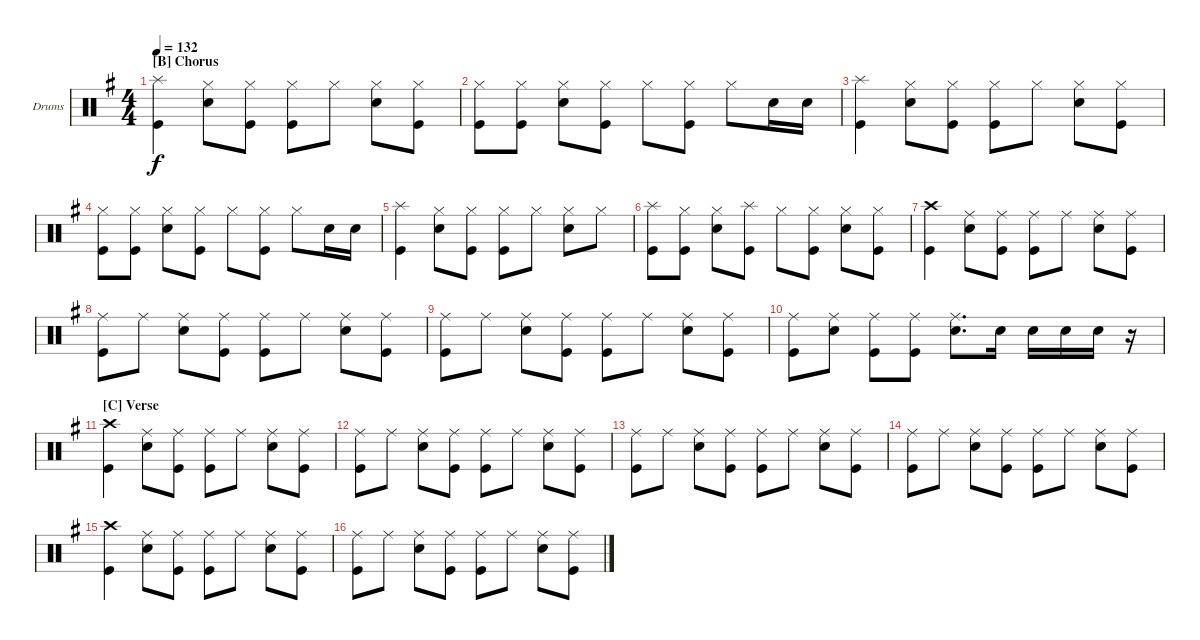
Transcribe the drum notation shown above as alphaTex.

\defaultSystemsLayout 4
\bracketExtendMode groupsimilarinstruments
\firstSystemTrackNameOrientation horizontal
\otherSystemsTrackNameOrientation horizontal
\track ("Drumkit" "Drums") {instrument percussion}
\staff {score}
\articulation defaults
\ts (4 4)
\section ("B" "Chorus")
\tempo 132
\clef neutral
\scale
0.957125
\ks g
("Splash (hit)" "Kick (hit)").4{dy f} ("Hi-Hat (closed)" "Snare (hit) 2").8 ("Hi-Hat (closed)" "Kick (hit)").8 ("Hi-Hat (closed)" "Kick (hit)").8 "Hi-Hat (closed)".8 ("Hi-Hat (closed)" "Snare (hit) 2").8 ("Hi-Hat (closed)" "Kick (hit)").8 |
\scale
0.957125 ("Hi-Hat (closed)" "Kick (hit)").8 ("Hi-Hat (closed)" "Kick (hit)").8 ("Hi-Hat (closed)" "Snare (hit) 2").8 ("Hi-Hat (closed)" "Kick (hit)").8 "Hi-Hat (closed)".8 ("Hi-Hat (closed)" "Kick (hit)").8 "Hi-Hat (closed)".8 "Snare (hit) 2".16 "Snare (hit) 2".16 |
\scale
1.08575 ("Splash (hit)" "Kick (hit)").4 ("Hi-Hat (closed)" "Snare (hit) 2").8 ("Hi-Hat (closed)" "Kick (hit)").8 ("Hi-Hat (closed)" "Kick (hit)").8 "Hi-Hat (closed)".8 ("Hi-Hat (closed)" "Snare (hit) 2").8 ("Hi-Hat (closed)" "Kick (hit)").8 |
\scale
0.957125 ("Hi-Hat (closed)" "Kick (hit)").8 ("Hi-Hat (closed)" "Kick (hit)").8 ("Hi-Hat (closed)" "Snare (hit) 2").8 ("Hi-Hat (closed)" "Kick (hit)").8 "Hi-Hat (closed)".8 ("Hi-Hat (closed)" "Kick (hit)").8 "Hi-Hat (closed)".8 "Snare (hit) 2".16 "Snare (hit) 2".16 |
\scale
0.957125 ("Splash (hit)" "Kick (hit)").4 ("Hi-Hat (closed)" "Snare (hit) 2").8 ("Hi-Hat (closed)" "Kick (hit)").8 ("Hi-Hat (closed)" "Kick (hit)").8 "Hi-Hat (closed)".8 ("Hi-Hat (closed)" "Snare (hit) 2").8 "Hi-Hat (closed)".8 |
\scale
1.08575 ("Splash (hit)" "Kick (hit)").8 ("Hi-Hat (closed)" "Kick (hit)").8 ("Hi-Hat (closed)" "Snare (hit) 2").8 ("Splash (hit)" "Kick (hit)").8 "Hi-Hat (closed)".8 ("Hi-Hat (closed)" "Kick (hit)").8 ("Hi-Hat (closed)" "Snare (hit) 2").8 ("Hi-Hat (closed)" "Kick (hit)").8 |
\scale
0.957125 ("Crash high (hit)" "Kick (hit)").4 ("Ride (middle)" "Snare (hit) 2").8 ("Ride (middle)" "Kick (hit)").8 ("Ride (middle)" "Kick (hit)").8 "Ride (middle)".8 ("Ride (middle)" "Snare (hit) 2").8 ("Ride (middle)" "Kick (hit)").8 |
\scale
0.957125 ("Ride (middle)" "Kick (hit)").8 "Ride (middle)".8 ("Ride (middle)" "Snare (hit) 2").8 ("Ride (middle)" "Kick (hit)").8 ("Ride (middle)" "Kick (hit)").8 "Ride (middle)".8 ("Ride (middle)" "Snare (hit) 2").8 ("Ride (middle)" "Kick (hit)").8 |
\scale
1.08575 ("Ride (middle)" "Kick (hit)").8 "Ride (middle)".8 ("Ride (middle)" "Snare (hit) 2").8 ("Ride (middle)" "Kick (hit)").8 ("Ride (middle)" "Kick (hit)").8 "Ride (middle)".8 ("Ride (middle)" "Snare (hit) 2").8 ("Ride (middle)" "Kick (hit)").8 |
\scale
0.957125 ("Ride (middle)" "Kick (hit)").8 ("Ride (middle)" "Snare (hit) 2").8 ("Ride (middle)" "Kick (hit)").8 ("Ride (middle)" "Kick (hit)").8 ("Ride (middle)" "Snare (hit) 2").8{d} "Snare (hit) 2".16 "Snare (hit) 2".16 "Snare (hit) 2".16 "Snare (hit) 2".16 r.16 |
\section ("C" "Verse")
\scale
0.957125 ("Crash high (hit)" "Kick (hit)").4 ("Ride (middle)" "Snare (hit) 2").8 ("Ride (middle)" "Kick (hit)").8 ("Ride (middle)" "Kick (hit)").8 "Ride (middle)".8 ("Ride (middle)" "Snare (hit) 2").8 ("Ride (middle)" "Kick (hit)").8 |
\scale
1.08575 ("Ride (middle)" "Kick (hit)").8 "Ride (middle)".8 ("Ride (middle)" "Snare (hit) 2").8 ("Ride (middle)" "Kick (hit)").8 ("Ride (middle)" "Kick (hit)").8 "Ride (middle)".8 ("Ride (middle)" "Snare (hit) 2").8 ("Ride (middle)" "Kick (hit)").8 |
\scale
0.957125 ("Ride (middle)" "Kick (hit)").8 "Ride (middle)".8 ("Ride (middle)" "Snare (hit) 2").8 ("Ride (middle)" "Kick (hit)").8 ("Ride (middle)" "Kick (hit)").8 "Ride (middle)".8 ("Ride (middle)" "Snare (hit) 2").8 ("Ride (middle)" "Kick (hit)").8 |
\scale
0.957125 ("Ride (middle)" "Kick (hit)").8 "Ride (middle)".8 ("Ride (middle)" "Snare (hit) 2").8 ("Ride (middle)" "Kick (hit)").8 ("Ride (middle)" "Kick (hit)").8 "Ride (middle)".8 ("Ride (middle)" "Snare (hit) 2").8 ("Ride (middle)" "Kick (hit)").8 |
\scale
1.08575 ("Crash high (hit)" "Kick (hit)").4 ("Ride (middle)" "Snare (hit) 2").8 ("Ride (middle)" "Kick (hit)").8 ("Ride (middle)" "Kick (hit)").8 "Ride (middle)".8 ("Ride (middle)" "Snare (hit) 2").8 ("Ride (middle)" "Kick (hit)").8 |
\scale
0.957125 ("Ride (middle)" "Kick (hit)").8 "Ride (middle)".8 ("Ride (middle)" "Snare (hit) 2").8 ("Ride (middle)" "Kick (hit)").8 ("Ride (middle)" "Kick (hit)").8 "Ride (middle)".8 ("Ride (middle)" "Snare (hit) 2").8 ("Ride (middle)" "Kick (hit)").8
